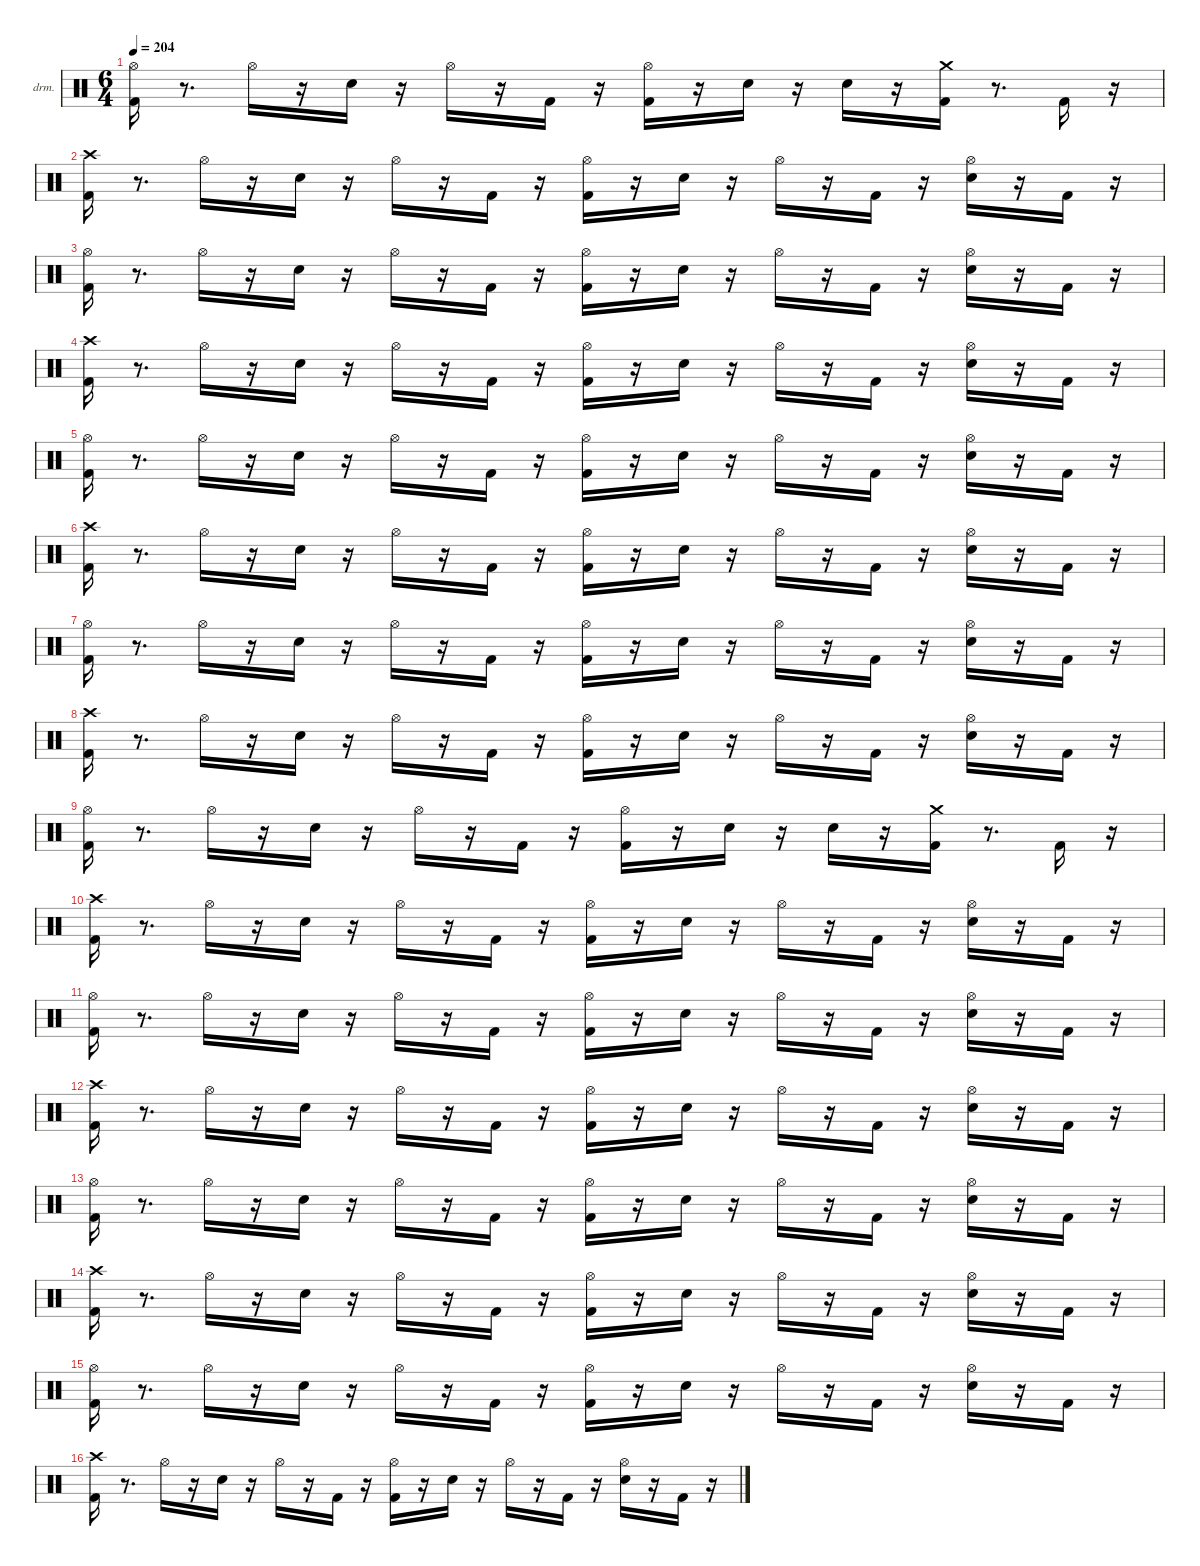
\hideDynamics
\bracketExtendMode nobrackets
\firstSystemTrackNameOrientation horizontal
\track ("drums" "drm.") {instrument percussion}
\staff {score}
\articulation defaults
\ts (6 4)
\tempo 204
\clef neutral
\ks aminor
("Kick (hit) 2" "Hi-Hat (open)"{acc #}).16{dy fff beam Down} r.8{d beam Down} "Hi-Hat (open)"{acc #}.16{dy mp beam Down} r.16{beam Down} "Snare (hit) 2".16{dy ff beam Down} r.16{beam Down} "Hi-Hat (open)"{acc #}.16{dy f beam Down} r.16{beam Down} "Kick (hit) 2".16{dy mf beam Down} r.16{beam Down} ("Kick (hit) 2" "Hi-Hat (open)"{acc #}).16{dy fff beam Down} r.16{beam Down} "Snare (hit) 2".16{dy ff beam Down} r.16{beam Down} "Snare (hit) 2".16{dy p beam Down} r.16{beam Down} ("Kick (hit) 2" "Crash medium (hit)").16{dy ff beam Down} r.8{d beam Down} "Kick (hit) 2".16{dy mf beam Down} r.16{beam Down} |
("Kick (hit) 2" "Crash high (hit)"{acc #}).16{dy fff beam Down} r.8{d beam Down} "Hi-Hat (open)"{acc #}.16{dy mp beam Down} r.16{beam Down} "Snare (hit) 2".16{dy ff beam Down} r.16{beam Down} "Hi-Hat (open)"{acc #}.16{dy f beam Down} r.16{beam Down} "Kick (hit) 2".16{beam Down} r.16{beam Down} ("Kick (hit) 2" "Hi-Hat (open)"{acc #}).16{dy ff beam Down} r.16{beam Down} "Snare (hit) 2".16{beam Down} r.16{beam Down} "Hi-Hat (open)"{acc #}.16{dy mf beam Down} r.16{beam Down} "Kick (hit) 2".16{dy ff beam Down} r.16{beam Down} ("Snare (hit) 2" "Hi-Hat (open)"{acc #}).16{beam Down} r.16{beam Down} "Kick (hit) 2".16{dy f beam Down} r.16{beam Down} |
("Kick (hit) 2" "Hi-Hat (open)"{acc #}).16{dy fff beam Down} r.8{d beam Down} "Hi-Hat (open)"{acc #}.16{dy mf beam Down} r.16{beam Down} "Snare (hit) 2".16{dy ff beam Down} r.16{beam Down} "Hi-Hat (open)"{acc #}.16{dy f beam Down} r.16{beam Down} "Kick (hit) 2".16{dy mf beam Down} r.16{beam Down} ("Kick (hit) 2" "Hi-Hat (open)"{acc #}).16{dy fff beam Down} r.16{beam Down} "Snare (hit) 2".16{dy ff beam Down} r.16{beam Down} "Hi-Hat (open)"{acc #}.16{dy mf beam Down} r.16{beam Down} "Kick (hit) 2".16{dy ff beam Down} r.16{beam Down} ("Snare (hit) 2" "Hi-Hat (open)"{acc #}).16{dy f beam Down} r.16{beam Down} "Kick (hit) 2".16{dy mp beam Down} r.16{beam Down} |
("Kick (hit) 2" "Crash high (hit)"{acc #}).16{dy fff beam Down} r.8{d beam Down} "Hi-Hat (open)"{acc #}.16{dy mf beam Down} r.16{beam Down} "Snare (hit) 2".16{dy ff beam Down} r.16{beam Down} "Hi-Hat (open)"{acc #}.16{dy f beam Down} r.16{beam Down} "Kick (hit) 2".16{dy mf beam Down} r.16{beam Down} ("Kick (hit) 2" "Hi-Hat (open)"{acc #}).16{dy fff beam Down} r.16{beam Down} "Snare (hit) 2".16{dy ff beam Down} r.16{beam Down} "Hi-Hat (open)"{acc #}.16{dy mp beam Down} r.16{beam Down} "Kick (hit) 2".16{dy ff beam Down} r.16{beam Down} ("Snare (hit) 2" "Hi-Hat (open)"{acc #}).16{dy f beam Down} r.16{beam Down} "Kick (hit) 2".16{dy mp beam Down} r.16{beam Down} |
("Kick (hit) 2" "Hi-Hat (open)"{acc #}).16{dy fff beam Down} r.8{d beam Down} "Hi-Hat (open)"{acc #}.16{dy mp beam Down} r.16{beam Down} "Snare (hit) 2".16{dy ff beam Down} r.16{beam Down} "Hi-Hat (open)"{acc #}.16{dy f beam Down} r.16{beam Down} "Kick (hit) 2".16{dy mf beam Down} r.16{beam Down} ("Kick (hit) 2" "Hi-Hat (open)"{acc #}).16{dy fff beam Down} r.16{beam Down} "Snare (hit) 2".16{dy ff beam Down} r.16{beam Down} "Hi-Hat (open)"{acc #}.16{dy mf beam Down} r.16{beam Down} "Kick (hit) 2".16{dy ff beam Down} r.16{beam Down} ("Snare (hit) 2" "Hi-Hat (open)"{acc #}).16{dy f beam Down} r.16{beam Down} "Kick (hit) 2".16{dy mp beam Down} r.16{beam Down} |
("Kick (hit) 2" "Crash high (hit)"{acc #}).16{dy fff beam Down} r.8{d beam Down} "Hi-Hat (open)"{acc #}.16{dy mf beam Down} r.16{beam Down} "Snare (hit) 2".16{dy ff beam Down} r.16{beam Down} "Hi-Hat (open)"{acc #}.16{dy f beam Down} r.16{beam Down} "Kick (hit) 2".16{dy mf beam Down} r.16{beam Down} ("Kick (hit) 2" "Hi-Hat (open)"{acc #}).16{dy fff beam Down} r.16{beam Down} "Snare (hit) 2".16{dy ff beam Down} r.16{beam Down} "Hi-Hat (open)"{acc #}.16{dy mp beam Down} r.16{beam Down} "Kick (hit) 2".16{dy ff beam Down} r.16{beam Down} ("Snare (hit) 2" "Hi-Hat (open)"{acc #}).16{dy f beam Down} r.16{beam Down} "Kick (hit) 2".16{dy mp beam Down} r.16{beam Down} |
("Kick (hit) 2" "Hi-Hat (open)"{acc #}).16{dy fff beam Down} r.8{d beam Down} "Hi-Hat (open)"{acc #}.16{dy mp beam Down} r.16{beam Down} "Snare (hit) 2".16{dy ff beam Down} r.16{beam Down} "Hi-Hat (open)"{acc #}.16{dy f beam Down} r.16{beam Down} "Kick (hit) 2".16{dy mf beam Down} r.16{beam Down} ("Kick (hit) 2" "Hi-Hat (open)"{acc #}).16{dy fff beam Down} r.16{beam Down} "Snare (hit) 2".16{dy ff beam Down} r.16{beam Down} "Hi-Hat (open)"{acc #}.16{dy mf beam Down} r.16{beam Down} "Kick (hit) 2".16{dy ff beam Down} r.16{beam Down} ("Snare (hit) 2" "Hi-Hat (open)"{acc #}).16{dy f beam Down} r.16{beam Down} "Kick (hit) 2".16{dy mp beam Down} r.16{beam Down} |
("Kick (hit) 2" "Crash high (hit)"{acc #}).16{dy fff beam Down} r.8{d beam Down} "Hi-Hat (open)"{acc #}.16{dy mf beam Down} r.16{beam Down} "Snare (hit) 2".16{dy ff beam Down} r.16{beam Down} "Hi-Hat (open)"{acc #}.16{dy f beam Down} r.16{beam Down} "Kick (hit) 2".16{dy mf beam Down} r.16{beam Down} ("Kick (hit) 2" "Hi-Hat (open)"{acc #}).16{dy fff beam Down} r.16{beam Down} "Snare (hit) 2".16{dy ff beam Down} r.16{beam Down} "Hi-Hat (open)"{acc #}.16{dy mp beam Down} r.16{beam Down} "Kick (hit) 2".16{dy ff beam Down} r.16{beam Down} ("Snare (hit) 2" "Hi-Hat (open)"{acc #}).16{dy f beam Down} r.16{beam Down} "Kick (hit) 2".16{dy mp beam Down} r.16{beam Down} |
("Kick (hit) 2" "Hi-Hat (open)"{acc #}).16{dy fff beam Down} r.8{d beam Down} "Hi-Hat (open)"{acc #}.16{dy mp beam Down} r.16{beam Down} "Snare (hit) 2".16{dy ff beam Down} r.16{beam Down} "Hi-Hat (open)"{acc #}.16{dy f beam Down} r.16{beam Down} "Kick (hit) 2".16{dy mf beam Down} r.16{beam Down} ("Kick (hit) 2" "Hi-Hat (open)"{acc #}).16{dy fff beam Down} r.16{beam Down} "Snare (hit) 2".16{dy ff beam Down} r.16{beam Down} "Snare (hit) 2".16{dy p beam Down} r.16{beam Down} ("Kick (hit) 2" "Crash medium (hit)").16{dy ff beam Down} r.8{d beam Down} "Kick (hit) 2".16{dy mf beam Down} r.16{beam Down} |
("Kick (hit) 2" "Crash high (hit)"{acc #}).16{dy fff beam Down} r.8{d beam Down} "Hi-Hat (open)"{acc #}.16{dy mf beam Down} r.16{beam Down} "Snare (hit) 2".16{dy ff beam Down} r.16{beam Down} "Hi-Hat (open)"{acc #}.16{dy f beam Down} r.16{beam Down} "Kick (hit) 2".16{dy mf beam Down} r.16{beam Down} ("Kick (hit) 2" "Hi-Hat (open)"{acc #}).16{dy fff beam Down} r.16{beam Down} "Snare (hit) 2".16{dy ff beam Down} r.16{beam Down} "Hi-Hat (open)"{acc #}.16{dy mp beam Down} r.16{beam Down} "Kick (hit) 2".16{dy ff beam Down} r.16{beam Down} ("Snare (hit) 2" "Hi-Hat (open)"{acc #}).16{dy f beam Down} r.16{beam Down} "Kick (hit) 2".16{dy mp beam Down} r.16{beam Down} |
("Kick (hit) 2" "Hi-Hat (open)"{acc #}).16{dy fff beam Down} r.8{d beam Down} "Hi-Hat (open)"{acc #}.16{dy mf beam Down} r.16{beam Down} "Snare (hit) 2".16{dy ff beam Down} r.16{beam Down} "Hi-Hat (open)"{acc #}.16{dy f beam Down} r.16{beam Down} "Kick (hit) 2".16{dy mf beam Down} r.16{beam Down} ("Kick (hit) 2" "Hi-Hat (open)"{acc #}).16{dy fff beam Down} r.16{beam Down} "Snare (hit) 2".16{dy ff beam Down} r.16{beam Down} "Hi-Hat (open)"{acc #}.16{dy mf beam Down} r.16{beam Down} "Kick (hit) 2".16{dy ff beam Down} r.16{beam Down} ("Snare (hit) 2" "Hi-Hat (open)"{acc #}).16{dy f beam Down} r.16{beam Down} "Kick (hit) 2".16{dy mp beam Down} r.16{beam Down} |
("Kick (hit) 2" "Crash high (hit)"{acc #}).16{dy fff beam Down} r.8{d beam Down} "Hi-Hat (open)"{acc #}.16{dy mf beam Down} r.16{beam Down} "Snare (hit) 2".16{dy ff beam Down} r.16{beam Down} "Hi-Hat (open)"{acc #}.16{dy f beam Down} r.16{beam Down} "Kick (hit) 2".16{dy mf beam Down} r.16{beam Down} ("Kick (hit) 2" "Hi-Hat (open)"{acc #}).16{dy fff beam Down} r.16{beam Down} "Snare (hit) 2".16{dy ff beam Down} r.16{beam Down} "Hi-Hat (open)"{acc #}.16{dy mp beam Down} r.16{beam Down} "Kick (hit) 2".16{dy ff beam Down} r.16{beam Down} ("Snare (hit) 2" "Hi-Hat (open)"{acc #}).16{dy f beam Down} r.16{beam Down} "Kick (hit) 2".16{dy mp beam Down} r.16{beam Down} |
("Kick (hit) 2" "Hi-Hat (open)"{acc #}).16{dy fff beam Down} r.8{d beam Down} "Hi-Hat (open)"{acc #}.16{dy mp beam Down} r.16{beam Down} "Snare (hit) 2".16{dy ff beam Down} r.16{beam Down} "Hi-Hat (open)"{acc #}.16{dy f beam Down} r.16{beam Down} "Kick (hit) 2".16{dy mf beam Down} r.16{beam Down} ("Kick (hit) 2" "Hi-Hat (open)"{acc #}).16{dy fff beam Down} r.16{beam Down} "Snare (hit) 2".16{dy ff beam Down} r.16{beam Down} "Hi-Hat (open)"{acc #}.16{dy mf beam Down} r.16{beam Down} "Kick (hit) 2".16{dy ff beam Down} r.16{beam Down} ("Snare (hit) 2" "Hi-Hat (open)"{acc #}).16{dy f beam Down} r.16{beam Down} "Kick (hit) 2".16{dy mp beam Down} r.16{beam Down} |
("Kick (hit) 2" "Crash high (hit)"{acc #}).16{dy fff beam Down} r.8{d beam Down} "Hi-Hat (open)"{acc #}.16{dy mf beam Down} r.16{beam Down} "Snare (hit) 2".16{dy ff beam Down} r.16{beam Down} "Hi-Hat (open)"{acc #}.16{dy f beam Down} r.16{beam Down} "Kick (hit) 2".16{dy mf beam Down} r.16{beam Down} ("Kick (hit) 2" "Hi-Hat (open)"{acc #}).16{dy fff beam Down} r.16{beam Down} "Snare (hit) 2".16{dy ff beam Down} r.16{beam Down} "Hi-Hat (open)"{acc #}.16{dy mp beam Down} r.16{beam Down} "Kick (hit) 2".16{dy ff beam Down} r.16{beam Down} ("Snare (hit) 2" "Hi-Hat (open)"{acc #}).16{dy f beam Down} r.16{beam Down} "Kick (hit) 2".16{dy mp beam Down} r.16{beam Down} |
("Kick (hit) 2" "Hi-Hat (open)"{acc #}).16{dy fff beam Down} r.8{d beam Down} "Hi-Hat (open)"{acc #}.16{dy mp beam Down} r.16{beam Down} "Snare (hit) 2".16{dy ff beam Down} r.16{beam Down} "Hi-Hat (open)"{acc #}.16{dy f beam Down} r.16{beam Down} "Kick (hit) 2".16{dy mf beam Down} r.16{beam Down} ("Kick (hit) 2" "Hi-Hat (open)"{acc #}).16{dy fff beam Down} r.16{beam Down} "Snare (hit) 2".16{dy ff beam Down} r.16{beam Down} "Hi-Hat (open)"{acc #}.16{dy mf beam Down} r.16{beam Down} "Kick (hit) 2".16{dy ff beam Down} r.16{beam Down} ("Snare (hit) 2" "Hi-Hat (open)"{acc #}).16{dy f beam Down} r.16{beam Down} "Kick (hit) 2".16{dy mp beam Down} r.16{beam Down} |
("Kick (hit) 2" "Crash high (hit)"{acc #}).16{dy fff beam Down} r.8{d beam Down} "Hi-Hat (open)"{acc #}.16{dy mf beam Down} r.16{beam Down} "Snare (hit) 2".16{dy ff beam Down} r.16{beam Down} "Hi-Hat (open)"{acc #}.16{dy f beam Down} r.16{beam Down} "Kick (hit) 2".16{dy mf beam Down} r.16{beam Down} ("Kick (hit) 2" "Hi-Hat (open)"{acc #}).16{dy fff beam Down} r.16{beam Down} "Snare (hit) 2".16{dy ff beam Down} r.16{beam Down} "Hi-Hat (open)"{acc #}.16{dy mp beam Down} r.16{beam Down} "Kick (hit) 2".16{dy ff beam Down} r.16{beam Down} ("Snare (hit) 2" "Hi-Hat (open)"{acc #}).16{dy f beam Down} r.16{beam Down} "Kick (hit) 2".16{dy mp beam Down} r.16{beam Down}
